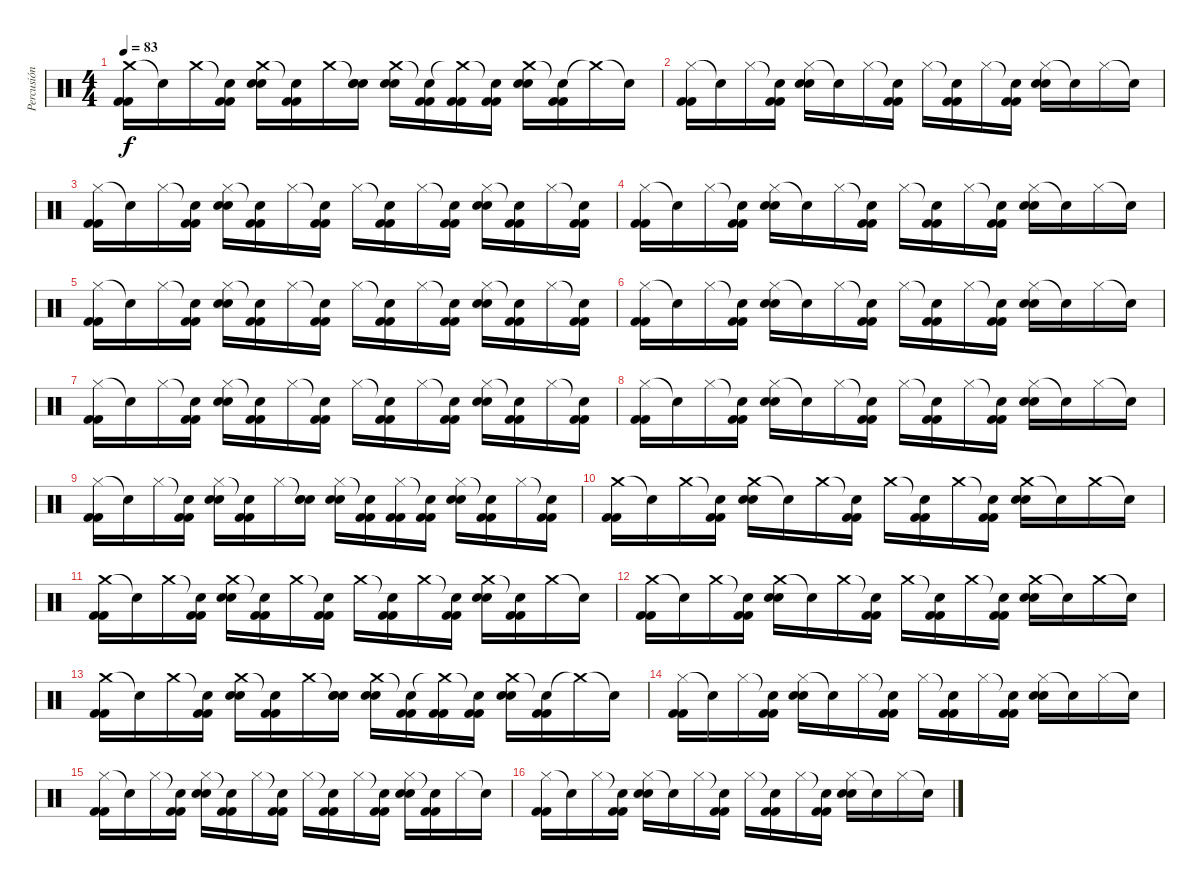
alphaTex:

\track ("Percusión" "Percusión") {instrument percussion}
\staff {score}
\articulation defaults
\ts (4 4)
\tempo 83
\clef neutral
\ks c
("Crash medium (hit)" "Kick (hit) 2" "Kick (hit) 2").16{dy f} "Snare (hit)"{t}.16 "Crash medium (hit)".16 ("Snare (hit)"{t} "Kick (hit) 2" "Kick (hit) 2").16 ("Crash medium (hit)" "Electric Snare (hit)" "Electric Snare (hit)").16 ("Snare (hit)"{t} "Kick (hit) 2" "Kick (hit) 2").16 "Crash medium (hit)".16 ("Snare (hit)"{t} "Electric Snare (hit)" "Electric Snare (hit)").16 ("Crash medium (hit)" "Electric Snare (hit)" "Electric Snare (hit)").16 ("Snare (hit)"{t} "Kick (hit) 2" "Kick (hit) 2").16 ("Crash medium (hit)"{t} "Kick (hit) 2" "Kick (hit) 2").16 ("Snare (hit)"{t} "Kick (hit) 2" "Kick (hit) 2").16 ("Crash medium (hit)" "Electric Snare (hit)" "Electric Snare (hit)").16 ("Snare (hit)"{t} "Kick (hit) 2" "Kick (hit) 2").16 "Crash medium (hit)"{t}.16 "Snare (hit)"{t}.16 |
("Hi-Hat (closed)" "Kick (hit) 2" "Kick (hit) 2").16 "Snare (hit)"{t}.16 "Hi-Hat (closed)".16 ("Snare (hit)"{t} "Kick (hit) 2" "Kick (hit) 2").16 ("Hi-Hat (closed)" "Electric Snare (hit)" "Electric Snare (hit)").16 "Snare (hit)"{t}.16 "Hi-Hat (closed)".16 ("Snare (hit)"{t} "Kick (hit) 2" "Kick (hit) 2").16 "Hi-Hat (closed)".16 ("Snare (hit)"{t} "Kick (hit) 2" "Kick (hit) 2").16 "Hi-Hat (closed)".16 ("Snare (hit)"{t} "Kick (hit) 2" "Kick (hit) 2").16 ("Hi-Hat (closed)" "Electric Snare (hit)" "Electric Snare (hit)").16 "Snare (hit)"{t}.16 "Hi-Hat (closed)".16 "Snare (hit)"{t}.16 |
("Hi-Hat (closed)" "Kick (hit) 2" "Kick (hit) 2").16 "Snare (hit)"{t}.16 "Hi-Hat (closed)".16 ("Snare (hit)"{t} "Kick (hit) 2" "Kick (hit) 2").16 ("Hi-Hat (closed)" "Electric Snare (hit)" "Electric Snare (hit)").16 ("Snare (hit)"{t} "Kick (hit) 2" "Kick (hit) 2").16 "Hi-Hat (closed)".16 ("Snare (hit)"{t} "Kick (hit) 2" "Kick (hit) 2").16 "Hi-Hat (closed)".16 ("Snare (hit)"{t} "Kick (hit) 2" "Kick (hit) 2").16 "Hi-Hat (closed)".16 ("Snare (hit)"{t} "Kick (hit) 2" "Kick (hit) 2").16 ("Hi-Hat (closed)" "Electric Snare (hit)" "Electric Snare (hit)").16 ("Snare (hit)"{t} "Kick (hit) 2" "Kick (hit) 2").16 "Hi-Hat (closed)".16 ("Snare (hit)"{t} "Kick (hit) 2" "Kick (hit) 2").16 |
("Hi-Hat (closed)" "Kick (hit) 2" "Kick (hit) 2").16 "Snare (hit)"{t}.16 "Hi-Hat (closed)".16 ("Snare (hit)"{t} "Kick (hit) 2" "Kick (hit) 2").16 ("Hi-Hat (closed)" "Electric Snare (hit)" "Electric Snare (hit)").16 "Snare (hit)"{t}.16 "Hi-Hat (closed)".16 ("Snare (hit)"{t} "Kick (hit) 2" "Kick (hit) 2").16 "Hi-Hat (closed)".16 ("Snare (hit)"{t} "Kick (hit) 2" "Kick (hit) 2").16 "Hi-Hat (closed)".16 ("Snare (hit)"{t} "Kick (hit) 2" "Kick (hit) 2").16 ("Hi-Hat (closed)" "Electric Snare (hit)" "Electric Snare (hit)").16 "Snare (hit)"{t}.16 "Hi-Hat (closed)".16 "Snare (hit)"{t}.16 |
("Hi-Hat (closed)" "Kick (hit) 2" "Kick (hit) 2").16 "Snare (hit)"{t}.16 "Hi-Hat (closed)".16 ("Snare (hit)"{t} "Kick (hit) 2" "Kick (hit) 2").16 ("Hi-Hat (closed)" "Electric Snare (hit)" "Electric Snare (hit)").16 ("Snare (hit)"{t} "Kick (hit) 2" "Kick (hit) 2").16 "Hi-Hat (closed)".16 ("Snare (hit)"{t} "Kick (hit) 2" "Kick (hit) 2").16 "Hi-Hat (closed)".16 ("Snare (hit)"{t} "Kick (hit) 2" "Kick (hit) 2").16 "Hi-Hat (closed)".16 ("Snare (hit)"{t} "Kick (hit) 2" "Kick (hit) 2").16 ("Hi-Hat (closed)" "Electric Snare (hit)" "Electric Snare (hit)").16 ("Snare (hit)"{t} "Kick (hit) 2" "Kick (hit) 2").16 "Hi-Hat (closed)".16 ("Snare (hit)"{t} "Kick (hit) 2" "Kick (hit) 2").16 |
("Hi-Hat (closed)" "Kick (hit) 2" "Kick (hit) 2").16 "Snare (hit)"{t}.16 "Hi-Hat (closed)".16 ("Snare (hit)"{t} "Kick (hit) 2" "Kick (hit) 2").16 ("Hi-Hat (closed)" "Electric Snare (hit)" "Electric Snare (hit)").16 "Snare (hit)"{t}.16 "Hi-Hat (closed)".16 ("Snare (hit)"{t} "Kick (hit) 2" "Kick (hit) 2").16 "Hi-Hat (closed)".16 ("Snare (hit)"{t} "Kick (hit) 2" "Kick (hit) 2").16 "Hi-Hat (closed)".16 ("Snare (hit)"{t} "Kick (hit) 2" "Kick (hit) 2").16 ("Hi-Hat (closed)" "Electric Snare (hit)" "Electric Snare (hit)").16 "Snare (hit)"{t}.16 "Hi-Hat (closed)".16 "Snare (hit)"{t}.16 |
("Hi-Hat (closed)" "Kick (hit) 2" "Kick (hit) 2").16 "Snare (hit)"{t}.16 "Hi-Hat (closed)".16 ("Snare (hit)"{t} "Kick (hit) 2" "Kick (hit) 2").16 ("Hi-Hat (closed)" "Electric Snare (hit)" "Electric Snare (hit)").16 ("Snare (hit)"{t} "Kick (hit) 2" "Kick (hit) 2").16 "Hi-Hat (closed)".16 ("Snare (hit)"{t} "Kick (hit) 2" "Kick (hit) 2").16 "Hi-Hat (closed)".16 ("Snare (hit)"{t} "Kick (hit) 2" "Kick (hit) 2").16 "Hi-Hat (closed)".16 ("Snare (hit)"{t} "Kick (hit) 2" "Kick (hit) 2").16 ("Hi-Hat (closed)" "Electric Snare (hit)" "Electric Snare (hit)").16 ("Snare (hit)"{t} "Kick (hit) 2" "Kick (hit) 2").16 "Hi-Hat (closed)".16 ("Snare (hit)"{t} "Kick (hit) 2" "Kick (hit) 2").16 |
("Hi-Hat (closed)" "Kick (hit) 2" "Kick (hit) 2").16 "Snare (hit)"{t}.16 "Hi-Hat (closed)".16 ("Snare (hit)"{t} "Kick (hit) 2" "Kick (hit) 2").16 ("Hi-Hat (closed)" "Electric Snare (hit)" "Electric Snare (hit)").16 "Snare (hit)"{t}.16 "Hi-Hat (closed)".16 ("Snare (hit)"{t} "Kick (hit) 2" "Kick (hit) 2").16 "Hi-Hat (closed)".16 ("Snare (hit)"{t} "Kick (hit) 2" "Kick (hit) 2").16 "Hi-Hat (closed)".16 ("Snare (hit)"{t} "Kick (hit) 2" "Kick (hit) 2").16 ("Hi-Hat (closed)" "Electric Snare (hit)" "Electric Snare (hit)").16 "Snare (hit)"{t}.16 "Hi-Hat (closed)".16 "Snare (hit)"{t}.16 |
("Hi-Hat (closed)" "Kick (hit) 2" "Kick (hit) 2").16 "Snare (hit)"{t}.16 "Hi-Hat (closed)".16 ("Snare (hit)"{t} "Kick (hit) 2" "Kick (hit) 2").16 ("Hi-Hat (closed)" "Electric Snare (hit)" "Electric Snare (hit)").16 ("Snare (hit)"{t} "Kick (hit) 2" "Kick (hit) 2").16 "Hi-Hat (closed)".16 ("Snare (hit)"{t} "Electric Snare (hit)" "Electric Snare (hit)").16 ("Hi-Hat (closed)" "Electric Snare (hit)" "Electric Snare (hit)").16 ("Snare (hit)"{t} "Kick (hit) 2" "Kick (hit) 2").16 ("Hi-Hat (closed)" "Kick (hit) 2" "Kick (hit) 2").16 ("Snare (hit)"{t} "Kick (hit) 2" "Kick (hit) 2").16 ("Hi-Hat (closed)" "Electric Snare (hit)" "Electric Snare (hit)").16 ("Snare (hit)"{t} "Kick (hit) 2" "Kick (hit) 2").16 "Hi-Hat (closed)".16 ("Snare (hit)"{t} "Kick (hit) 2" "Kick (hit) 2").16 |
("Crash medium (hit)" "Kick (hit) 2" "Kick (hit) 2").16 "Snare (hit)"{t}.16 "Crash medium (hit)".16 ("Snare (hit)"{t} "Kick (hit) 2" "Kick (hit) 2").16 ("Crash medium (hit)" "Electric Snare (hit)" "Electric Snare (hit)").16 "Snare (hit)"{t}.16 "Crash medium (hit)".16 ("Snare (hit)"{t} "Kick (hit) 2" "Kick (hit) 2").16 "Crash medium (hit)".16 ("Snare (hit)"{t} "Kick (hit) 2" "Kick (hit) 2").16 "Crash medium (hit)".16 ("Snare (hit)"{t} "Kick (hit) 2" "Kick (hit) 2").16 ("Crash medium (hit)" "Electric Snare (hit)" "Electric Snare (hit)").16 "Snare (hit)"{t}.16 "Crash medium (hit)".16 "Snare (hit)"{t}.16 |
("Crash medium (hit)" "Kick (hit) 2" "Kick (hit) 2").16 "Snare (hit)"{t}.16 "Crash medium (hit)".16 ("Snare (hit)"{t} "Kick (hit) 2" "Kick (hit) 2").16 ("Crash medium (hit)" "Electric Snare (hit)" "Electric Snare (hit)").16 ("Snare (hit)"{t} "Kick (hit) 2" "Kick (hit) 2").16 "Crash medium (hit)".16 ("Snare (hit)"{t} "Kick (hit) 2" "Kick (hit) 2").16 "Crash medium (hit)".16 ("Snare (hit)"{t} "Kick (hit) 2" "Kick (hit) 2").16 "Crash medium (hit)".16 ("Snare (hit)"{t} "Kick (hit) 2" "Kick (hit) 2").16 ("Crash medium (hit)" "Electric Snare (hit)" "Electric Snare (hit)").16 ("Snare (hit)"{t} "Kick (hit) 2" "Kick (hit) 2").16 "Crash medium (hit)".16 "Snare (hit)"{t}.16 |
("Crash medium (hit)" "Kick (hit) 2" "Kick (hit) 2").16 "Snare (hit)"{t}.16 "Crash medium (hit)".16 ("Snare (hit)"{t} "Kick (hit) 2" "Kick (hit) 2").16 ("Crash medium (hit)" "Electric Snare (hit)" "Electric Snare (hit)").16 "Snare (hit)"{t}.16 "Crash medium (hit)".16 ("Snare (hit)"{t} "Kick (hit) 2" "Kick (hit) 2").16 "Crash medium (hit)".16 ("Snare (hit)"{t} "Kick (hit) 2" "Kick (hit) 2").16 "Crash medium (hit)".16 ("Snare (hit)"{t} "Kick (hit) 2" "Kick (hit) 2").16 ("Crash medium (hit)" "Electric Snare (hit)" "Electric Snare (hit)").16 "Snare (hit)"{t}.16 "Crash medium (hit)".16 "Snare (hit)"{t}.16 |
("Crash medium (hit)" "Kick (hit) 2" "Kick (hit) 2").16 "Snare (hit)"{t}.16 "Crash medium (hit)".16 ("Snare (hit)"{t} "Kick (hit) 2" "Kick (hit) 2").16 ("Crash medium (hit)" "Electric Snare (hit)" "Electric Snare (hit)").16 ("Snare (hit)"{t} "Kick (hit) 2" "Kick (hit) 2").16 "Crash medium (hit)".16 ("Snare (hit)"{t} "Electric Snare (hit)" "Electric Snare (hit)").16 ("Crash medium (hit)" "Electric Snare (hit)" "Electric Snare (hit)").16 ("Snare (hit)"{t} "Kick (hit) 2" "Kick (hit) 2").16 ("Crash medium (hit)"{t} "Kick (hit) 2" "Kick (hit) 2").16 ("Snare (hit)"{t} "Kick (hit) 2" "Kick (hit) 2").16 ("Crash medium (hit)" "Electric Snare (hit)" "Electric Snare (hit)").16 ("Snare (hit)"{t} "Kick (hit) 2" "Kick (hit) 2").16 "Crash medium (hit)"{t}.16 "Snare (hit)"{t}.16 |
("Hi-Hat (closed)" "Kick (hit) 2" "Kick (hit) 2").16 "Snare (hit)"{t}.16 "Hi-Hat (closed)".16 ("Snare (hit)"{t} "Kick (hit) 2" "Kick (hit) 2").16 ("Hi-Hat (closed)" "Electric Snare (hit)" "Electric Snare (hit)").16 "Snare (hit)"{t}.16 "Hi-Hat (closed)".16 ("Snare (hit)"{t} "Kick (hit) 2" "Kick (hit) 2").16 "Hi-Hat (closed)".16 ("Snare (hit)"{t} "Kick (hit) 2" "Kick (hit) 2").16 "Hi-Hat (closed)".16 ("Snare (hit)"{t} "Kick (hit) 2" "Kick (hit) 2").16 ("Hi-Hat (closed)" "Electric Snare (hit)" "Electric Snare (hit)").16 "Snare (hit)"{t}.16 "Hi-Hat (closed)".16 "Snare (hit)"{t}.16 |
("Hi-Hat (closed)" "Kick (hit) 2" "Kick (hit) 2").16 "Snare (hit)"{t}.16 "Hi-Hat (closed)".16 ("Snare (hit)"{t} "Kick (hit) 2" "Kick (hit) 2").16 ("Hi-Hat (closed)" "Electric Snare (hit)" "Electric Snare (hit)").16 ("Snare (hit)"{t} "Kick (hit) 2" "Kick (hit) 2").16 "Hi-Hat (closed)".16 ("Snare (hit)"{t} "Kick (hit) 2" "Kick (hit) 2").16 "Hi-Hat (closed)".16 ("Snare (hit)"{t} "Kick (hit) 2" "Kick (hit) 2").16 "Hi-Hat (closed)".16 ("Snare (hit)"{t} "Kick (hit) 2" "Kick (hit) 2").16 ("Hi-Hat (closed)" "Electric Snare (hit)" "Electric Snare (hit)").16 ("Snare (hit)"{t} "Kick (hit) 2" "Kick (hit) 2").16 "Hi-Hat (closed)".16 "Snare (hit)"{t}.16 |
("Hi-Hat (closed)" "Kick (hit) 2" "Kick (hit) 2").16 "Snare (hit)"{t}.16 "Hi-Hat (closed)".16 ("Snare (hit)"{t} "Kick (hit) 2" "Kick (hit) 2").16 ("Hi-Hat (closed)" "Electric Snare (hit)" "Electric Snare (hit)").16 "Snare (hit)"{t}.16 "Hi-Hat (closed)".16 ("Snare (hit)"{t} "Kick (hit) 2" "Kick (hit) 2").16 "Hi-Hat (closed)".16 ("Snare (hit)"{t} "Kick (hit) 2" "Kick (hit) 2").16 "Hi-Hat (closed)".16 ("Snare (hit)"{t} "Kick (hit) 2" "Kick (hit) 2").16 ("Hi-Hat (closed)" "Electric Snare (hit)" "Electric Snare (hit)").16 "Snare (hit)"{t}.16 "Hi-Hat (closed)".16 "Snare (hit)"{t}.16
